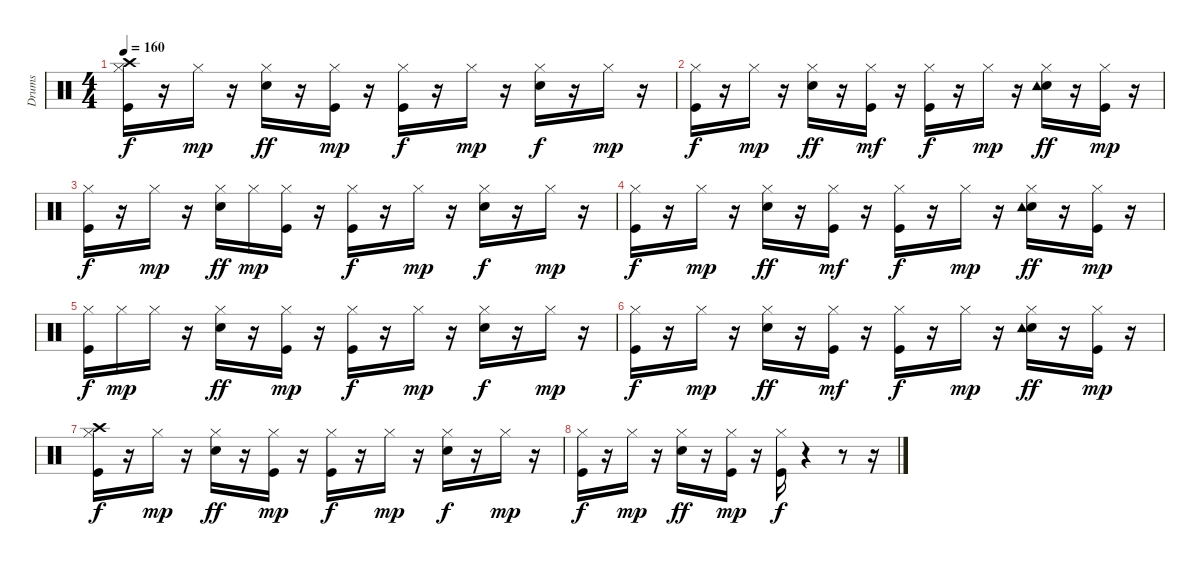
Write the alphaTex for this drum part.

\track ("Drums   " "Drums   ") {instrument percussion}
\staff {score}
\articulation defaults
\ts (4 4)
\tempo 160
\clef neutral
\ks c
("Kick (hit)" "Hi-Hat (closed)" "Crash high (hit)").16{dy f} r.16 "Hi-Hat (closed)".16{dy mp} r.16 ("Snare (hit) 2" "Hi-Hat (closed)").16{dy ff} r.16 ("Kick (hit)" "Hi-Hat (closed)").16{dy mp} r.16 ("Kick (hit)" "Hi-Hat (closed)").16{dy f} r.16 "Hi-Hat (closed)".16{dy mp} r.16 ("Snare (hit) 2" "Hi-Hat (closed)").16{dy f} r.16 "Hi-Hat (closed)".16{dy mp} r.16 |
("Kick (hit)" "Hi-Hat (closed)").16{dy f} r.16 "Hi-Hat (closed)".16{dy mp} r.16 ("Snare (hit) 2" "Hi-Hat (closed)").16{dy ff} r.16 ("Kick (hit)" "Hi-Hat (closed)").16{dy mf} r.16 ("Kick (hit)" "Hi-Hat (closed)").16{dy f} r.16 "Hi-Hat (closed)".16{dy mp} r.16 ("Snare (hit) 2" "Hi-Hat (closed)" "Tambourine (hit)").16{dy ff} r.16 ("Kick (hit)" "Hi-Hat (closed)").16{dy mp} r.16 |
("Kick (hit)" "Hi-Hat (closed)").16{dy f} r.16 "Hi-Hat (closed)".16{dy mp} r.16 ("Snare (hit) 2" "Hi-Hat (closed)").16{dy ff} "Hi-Hat (closed)".16{dy mp} ("Kick (hit)" "Hi-Hat (closed)").16 r.16 ("Kick (hit)" "Hi-Hat (closed)").16{dy f} r.16 "Hi-Hat (closed)".16{dy mp} r.16 ("Snare (hit) 2" "Hi-Hat (closed)").16{dy f} r.16 "Hi-Hat (closed)".16{dy mp} r.16 |
("Kick (hit)" "Hi-Hat (closed)").16{dy f} r.16 "Hi-Hat (closed)".16{dy mp} r.16 ("Snare (hit) 2" "Hi-Hat (closed)").16{dy ff} r.16 ("Kick (hit)" "Hi-Hat (closed)").16{dy mf} r.16 ("Kick (hit)" "Hi-Hat (closed)").16{dy f} r.16 "Hi-Hat (closed)".16{dy mp} r.16 ("Snare (hit) 2" "Hi-Hat (closed)" "Tambourine (hit)").16{dy ff} r.16 ("Kick (hit)" "Hi-Hat (closed)").16{dy mp} r.16 |
("Kick (hit)" "Hi-Hat (closed)").16{dy f} "Hi-Hat (closed)".16{dy mp} "Hi-Hat (closed)".16 r.16 ("Snare (hit) 2" "Hi-Hat (closed)").16{dy ff} r.16 ("Kick (hit)" "Hi-Hat (closed)").16{dy mp} r.16 ("Kick (hit)" "Hi-Hat (closed)").16{dy f} r.16 "Hi-Hat (closed)".16{dy mp} r.16 ("Snare (hit) 2" "Hi-Hat (closed)").16{dy f} r.16 "Hi-Hat (closed)".16{dy mp} r.16 |
("Kick (hit)" "Hi-Hat (closed)").16{dy f} r.16 "Hi-Hat (closed)".16{dy mp} r.16 ("Snare (hit) 2" "Hi-Hat (closed)").16{dy ff} r.16 ("Kick (hit)" "Hi-Hat (closed)").16{dy mf} r.16 ("Kick (hit)" "Hi-Hat (closed)").16{dy f} r.16 "Hi-Hat (closed)".16{dy mp} r.16 ("Snare (hit) 2" "Hi-Hat (closed)" "Tambourine (hit)").16{dy ff} r.16 ("Kick (hit)" "Hi-Hat (closed)").16{dy mp} r.16 |
("Kick (hit)" "Hi-Hat (closed)" "Crash high (hit)").16{dy f} r.16 "Hi-Hat (closed)".16{dy mp} r.16 ("Snare (hit) 2" "Hi-Hat (closed)").16{dy ff} r.16 ("Kick (hit)" "Hi-Hat (closed)").16{dy mp} r.16 ("Kick (hit)" "Hi-Hat (closed)").16{dy f} r.16 "Hi-Hat (closed)".16{dy mp} r.16 ("Snare (hit) 2" "Hi-Hat (closed)").16{dy f} r.16 "Hi-Hat (closed)".16{dy mp} r.16 |
("Kick (hit)" "Hi-Hat (closed)").16{dy f} r.16 "Hi-Hat (closed)".16{dy mp} r.16 ("Snare (hit) 2" "Hi-Hat (closed)").16{dy ff} r.16 ("Kick (hit)" "Hi-Hat (closed)").16{dy mp} r.16 ("Kick (hit)" "Hi-Hat (closed)").16{dy f} r.4 r.8 r.16
